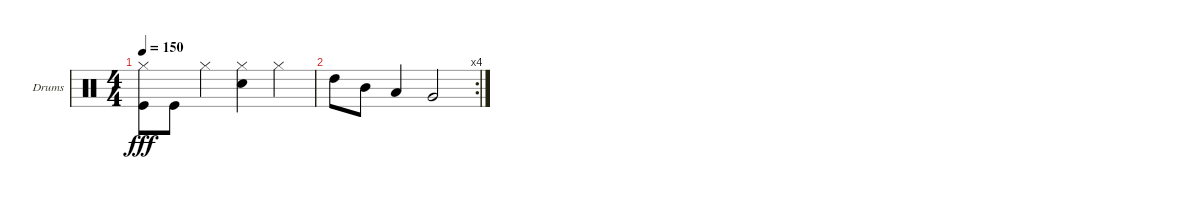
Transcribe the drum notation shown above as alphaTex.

\bracketExtendMode groupsimilarinstruments
\firstSystemTrackNameOrientation horizontal
\otherSystemsTrackNameOrientation horizontal
\track ("Drumkit" "Drums") {instrument percussion}
\staff {score}
\articulation defaults
\ts (4 4)
\tempo 150
\clef neutral
\scale
0.339709
\ks c
("Kick (hit)" "Hi-Hat (closed)").8{dy fff} "Kick (hit)".8 "Hi-Hat (closed)".4 ("Hi-Hat (closed)" "Snare (hit) 2").4 "Hi-Hat (closed)".4 |
\rc 4
\scale
0.30273 "High Tom (hit)".8 "Mid Tom (hit)".8 "Low Tom (hit)".4 "Very Low Tom (hit)".2
